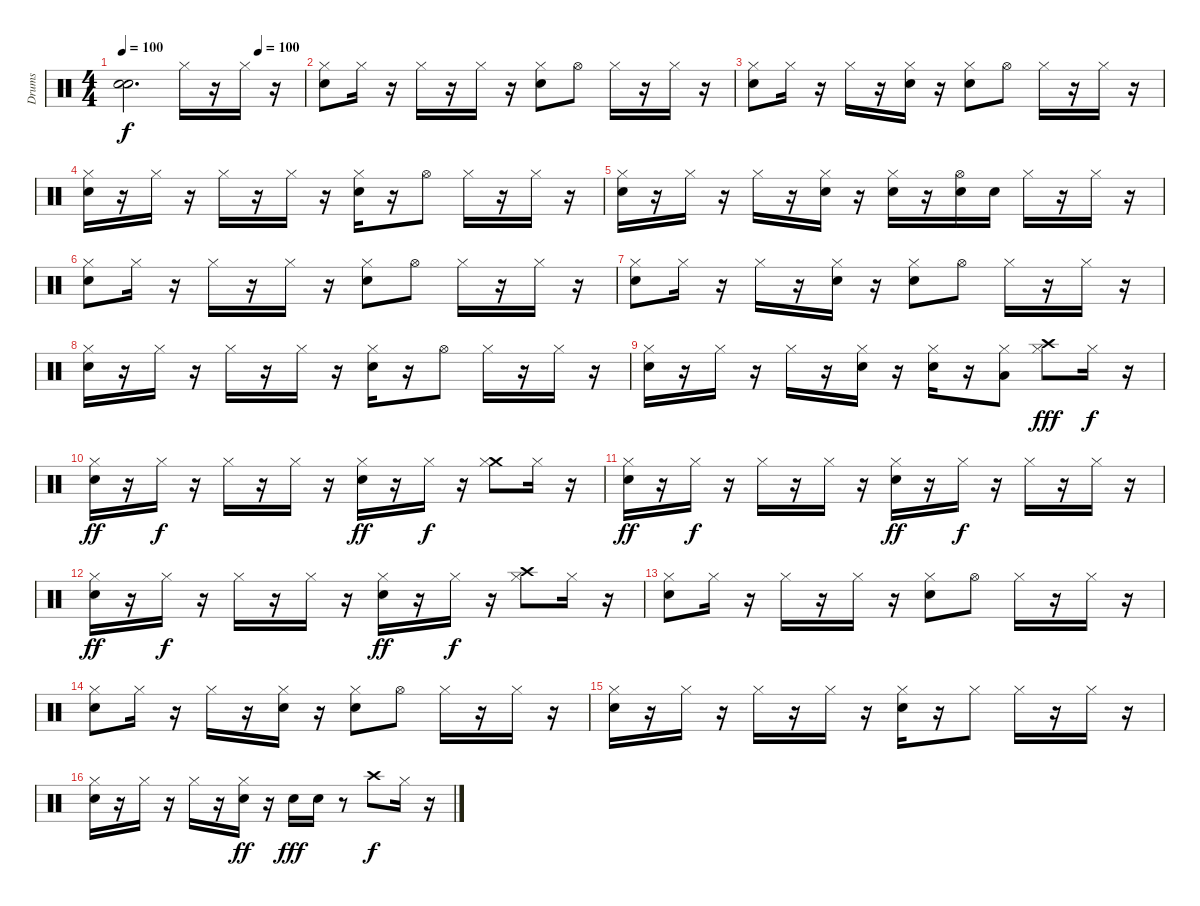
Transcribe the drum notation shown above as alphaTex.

\track ("Drums" "Drums") {instrument percussion}
\staff {score}
\articulation defaults
\ts (4 4)
\tempo 100
\tempo (100 0.75)
\clef neutral
\ks c
("Snare (hit)"{t} "Snare (hit)"{t}).2{d dy f} "Hi-Hat (closed)".16 r.16 "Hi-Hat (closed)".16 r.16 |
("Snare (hit) 2" "Hi-Hat (closed)").8 "Hi-Hat (closed)".16 r.16 "Hi-Hat (closed)".16 r.16 "Hi-Hat (closed)".16 r.16 ("Snare (hit) 2" "Hi-Hat (closed)").8 "Hi-Hat (open)".8 "Hi-Hat (closed)".16 r.16 "Hi-Hat (closed)".16 r.16 |
("Hi-Hat (closed)" "Snare (hit) 2").8 "Hi-Hat (closed)".16 r.16 "Hi-Hat (closed)".16 r.16 ("Hi-Hat (closed)" "Snare (hit) 2").16 r.16 ("Snare (hit) 2" "Hi-Hat (closed)").8 "Hi-Hat (open)".8 "Hi-Hat (closed)".16 r.16 "Hi-Hat (closed)".16 r.16 |
("Hi-Hat (closed)" "Snare (hit) 2").16 r.16 "Hi-Hat (closed)".16 r.16 "Hi-Hat (closed)".16 r.16 "Hi-Hat (closed)".16 r.16 ("Hi-Hat (closed)" "Snare (hit) 2").16 r.16 "Hi-Hat (open)".8 "Hi-Hat (closed)".16 r.16 "Hi-Hat (closed)".16 r.16 |
("Hi-Hat (closed)" "Snare (hit) 2").16 r.16 "Hi-Hat (closed)".16 r.16 "Hi-Hat (closed)".16 r.16 ("Hi-Hat (closed)" "Snare (hit) 2").16 r.16 ("Hi-Hat (closed)" "Snare (hit) 2").16 r.16 ("Hi-Hat (open)" "Snare (hit) 2").16 "Snare (hit) 2".16 "Hi-Hat (closed)".16 r.16 "Hi-Hat (closed)".16 r.16 |
("Hi-Hat (closed)" "Snare (hit) 2").8 "Hi-Hat (closed)".16 r.16 "Hi-Hat (closed)".16 r.16 "Hi-Hat (closed)".16 r.16 ("Snare (hit) 2" "Hi-Hat (closed)").8 "Hi-Hat (open)".8 "Hi-Hat (closed)".16 r.16 "Hi-Hat (closed)".16 r.16 |
("Hi-Hat (closed)" "Snare (hit) 2").8 "Hi-Hat (closed)".16 r.16 "Hi-Hat (closed)".16 r.16 ("Hi-Hat (closed)" "Snare (hit) 2").16 r.16 ("Hi-Hat (closed)" "Snare (hit) 2").8 "Hi-Hat (open)".8 "Hi-Hat (closed)".16 r.16 "Hi-Hat (closed)".16 r.16 |
("Hi-Hat (closed)" "Snare (hit) 2").16 r.16 "Hi-Hat (closed)".16 r.16 "Hi-Hat (closed)".16 r.16 "Hi-Hat (closed)".16 r.16 ("Snare (hit) 2" "Hi-Hat (closed)").16 r.16 "Hi-Hat (open)".8 "Hi-Hat (closed)".16 r.16 "Hi-Hat (closed)".16 r.16 |
("Snare (hit) 2" "Hi-Hat (closed)").16 r.16 "Hi-Hat (closed)".16 r.16 "Hi-Hat (closed)".16 r.16 ("Hi-Hat (closed)" "Snare (hit) 2").16 r.16 ("Hi-Hat (closed)" "Snare (hit) 2").16 r.16 ("Low Tom (hit)" "Hi-Hat (closed)").8 ("Crash high (hit)" "Hi-Hat (closed)").8{dy fff} "Hi-Hat (closed)".16{dy f} r.16 |
("Snare (hit) 2" "Hi-Hat (closed)").16{dy ff} r.16 "Hi-Hat (closed)".16{dy f} r.16 "Hi-Hat (closed)".16 r.16 "Hi-Hat (closed)".16 r.16 ("Snare (hit) 2" "Hi-Hat (closed)").16{dy ff} r.16 "Hi-Hat (closed)".16{dy f} r.16 ("Crash medium (hit)" "Hi-Hat (closed)").8 "Hi-Hat (closed)".16 r.16 |
("Snare (hit) 2" "Hi-Hat (closed)").16{dy ff} r.16 "Hi-Hat (closed)".16{dy f} r.16 "Hi-Hat (closed)".16 r.16 "Hi-Hat (closed)".16 r.16 ("Snare (hit) 2" "Hi-Hat (closed)").16{dy ff} r.16 "Hi-Hat (closed)".16{dy f} r.16 "Hi-Hat (closed)".16 r.16 "Hi-Hat (closed)".16 r.16 |
("Snare (hit) 2" "Hi-Hat (closed)").16{dy ff} r.16 "Hi-Hat (closed)".16{dy f} r.16 "Hi-Hat (closed)".16 r.16 "Hi-Hat (closed)".16 r.16 ("Snare (hit) 2" "Hi-Hat (closed)").16{dy ff} r.16 "Hi-Hat (closed)".16{dy f} r.16 ("Crash high (hit)" "Hi-Hat (closed)").8 "Hi-Hat (closed)".16 r.16 |
("Hi-Hat (closed)" "Snare (hit) 2").8 "Hi-Hat (closed)".16 r.16 "Hi-Hat (closed)".16 r.16 "Hi-Hat (closed)".16 r.16 ("Snare (hit) 2" "Hi-Hat (closed)").8 "Hi-Hat (open)".8 "Hi-Hat (closed)".16 r.16 "Hi-Hat (closed)".16 r.16 |
("Hi-Hat (closed)" "Snare (hit) 2").8 "Hi-Hat (closed)".16 r.16 "Hi-Hat (closed)".16 r.16 ("Hi-Hat (closed)" "Snare (hit) 2").16 r.16 ("Hi-Hat (closed)" "Snare (hit) 2").8 "Hi-Hat (open)".8 "Hi-Hat (closed)".16 r.16 "Hi-Hat (closed)".16 r.16 |
("Hi-Hat (closed)" "Snare (hit) 2").16 r.16 "Hi-Hat (closed)".16 r.16 "Hi-Hat (closed)".16 r.16 "Hi-Hat (closed)".16 r.16 ("Snare (hit) 2" "Hi-Hat (closed)").16 r.16 "Hi-Hat (closed)".8 "Hi-Hat (closed)".16 r.16 "Hi-Hat (closed)".16 r.16 |
("Snare (hit) 2" "Hi-Hat (closed)").16 r.16 "Hi-Hat (closed)".16 r.16 "Hi-Hat (closed)".16 r.16 ("Snare (hit) 2" "Hi-Hat (closed)").16{dy ff} r.16 "Snare (hit) 2".16{dy fff} "Snare (hit) 2".16 r.8 "Crash high (hit)".8{dy f} "Hi-Hat (closed)".16 r.16
